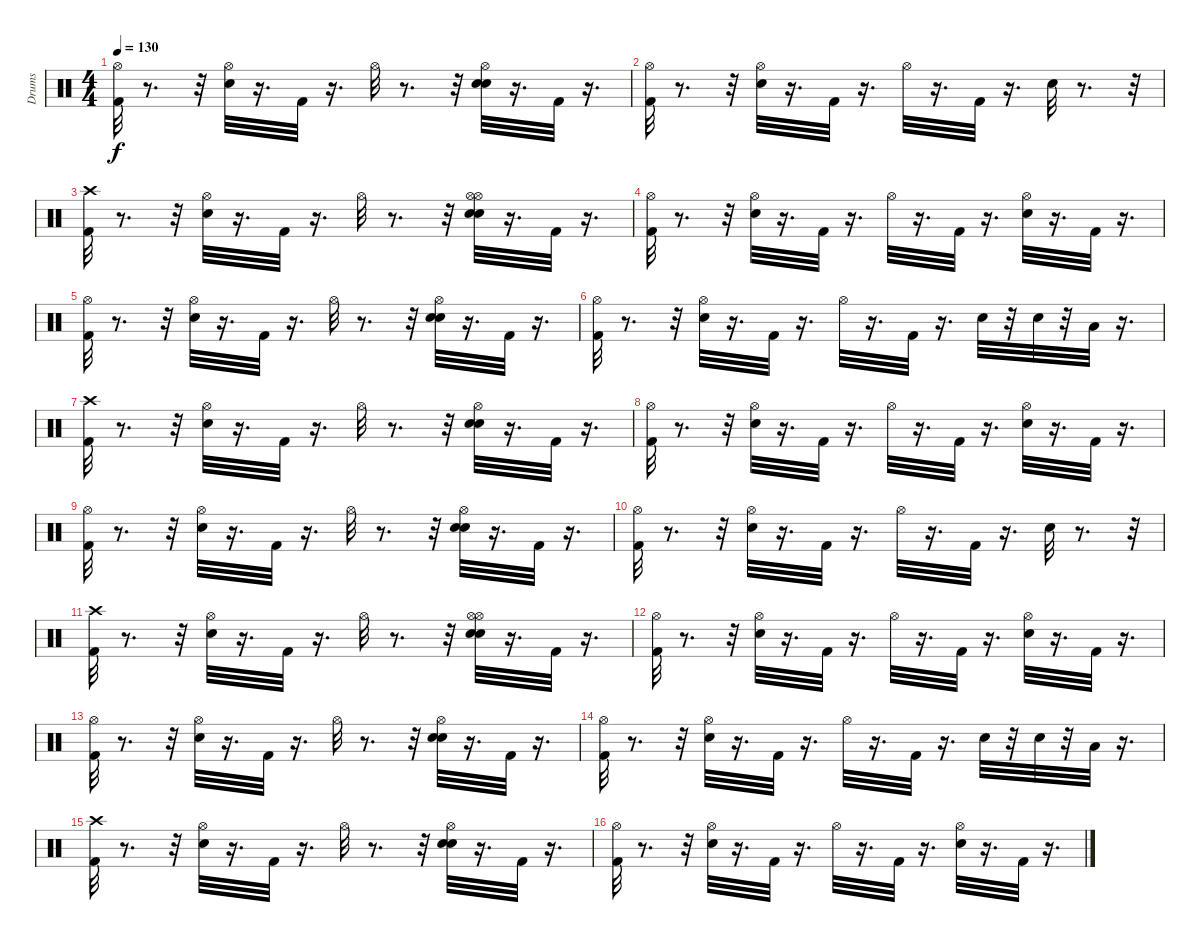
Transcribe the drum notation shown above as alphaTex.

\track ("Drums" "Drums") {instrument percussion}
\staff {score}
\articulation defaults
\ts (4 4)
\tempo 130
\clef neutral
\ks c
("Hi-Hat (open)" "Kick (hit) 2").32{dy f} r.8{d} r.32 ("Snare (hit) 2" "Hi-Hat (open)").32 r.16{d} "Kick (hit) 2".32 r.16{d} "Hi-Hat (open)".32 r.8{d} r.32 ("Snare (hit) 2" "Hi-Hat (open)" "Snare (hit) 2").32 r.16{d} "Kick (hit) 2".32 r.16{d} |
("Hi-Hat (open)" "Kick (hit) 2").32 r.8{d} r.32 ("Snare (hit) 2" "Hi-Hat (open)").32 r.16{d} "Kick (hit) 2".32 r.16{d} "Hi-Hat (open)".32 r.16{d} "Kick (hit) 2".32 r.16{d} "Snare (hit) 2".32 r.8{d} r.32 |
("Kick (hit) 2" "Crash high (hit)").32 r.8{d} r.32 ("Snare (hit) 2" "Hi-Hat (open)").32 r.16{d} "Kick (hit) 2".32 r.16{d} "Hi-Hat (open)".32 r.8{d} r.32 ("Snare (hit) 2" "Hi-Hat (open)" "Snare (hit) 2" "Hi-Hat (open)").32 r.16{d} "Kick (hit) 2".32 r.16{d} |
("Kick (hit) 2" "Hi-Hat (open)").32 r.8{d} r.32 ("Snare (hit) 2" "Hi-Hat (open)").32 r.16{d} "Kick (hit) 2".32 r.16{d} "Hi-Hat (open)".32 r.16{d} "Kick (hit) 2".32 r.16{d} ("Snare (hit) 2" "Hi-Hat (open)").32 r.16{d} "Kick (hit) 2".32 r.16{d} |
("Hi-Hat (open)" "Kick (hit) 2").32 r.8{d} r.32 ("Snare (hit) 2" "Hi-Hat (open)").32 r.16{d} "Kick (hit) 2".32 r.16{d} "Hi-Hat (open)".32 r.8{d} r.32 ("Snare (hit) 2" "Hi-Hat (open)" "Snare (hit) 2").32 r.16{d} "Kick (hit) 2".32 r.16{d} |
("Kick (hit) 2" "Hi-Hat (open)").32 r.8{d} r.32 ("Snare (hit) 2" "Hi-Hat (open)").32 r.16{d} "Kick (hit) 2".32 r.16{d} "Hi-Hat (open)".32 r.16{d} "Kick (hit) 2".32 r.16{d} "Snare (hit) 2".32 r.32 "Snare (hit) 2".32 r.32 "Low Floor Tom (hit)".32 r.16{d} |
("Kick (hit) 2" "Crash high (hit)").32 r.8{d} r.32 ("Snare (hit) 2" "Hi-Hat (open)").32 r.16{d} "Kick (hit) 2".32 r.16{d} "Hi-Hat (open)".32 r.8{d} r.32 ("Snare (hit) 2" "Hi-Hat (open)" "Snare (hit) 2").32 r.16{d} "Kick (hit) 2".32 r.16{d} |
("Kick (hit) 2" "Hi-Hat (open)").32 r.8{d} r.32 ("Snare (hit) 2" "Hi-Hat (open)").32 r.16{d} "Kick (hit) 2".32 r.16{d} "Hi-Hat (open)".32 r.16{d} "Kick (hit) 2".32 r.16{d} ("Hi-Hat (open)" "Snare (hit) 2").32 r.16{d} "Kick (hit) 2".32 r.16{d} |
("Hi-Hat (open)" "Kick (hit) 2").32 r.8{d} r.32 ("Snare (hit) 2" "Hi-Hat (open)").32 r.16{d} "Kick (hit) 2".32 r.16{d} "Hi-Hat (open)".32 r.8{d} r.32 ("Snare (hit) 2" "Snare (hit) 2" "Hi-Hat (open)").32 r.16{d} "Kick (hit) 2".32 r.16{d} |
("Hi-Hat (open)" "Kick (hit) 2").32 r.8{d} r.32 ("Snare (hit) 2" "Hi-Hat (open)").32 r.16{d} "Kick (hit) 2".32 r.16{d} "Hi-Hat (open)".32 r.16{d} "Kick (hit) 2".32 r.16{d} "Snare (hit) 2".32 r.8{d} r.32 |
("Kick (hit) 2" "Crash high (hit)").32 r.8{d} r.32 ("Snare (hit) 2" "Hi-Hat (open)").32 r.16{d} "Kick (hit) 2".32 r.16{d} "Hi-Hat (open)".32 r.8{d} r.32 ("Snare (hit) 2" "Hi-Hat (open)" "Snare (hit) 2" "Hi-Hat (open)").32 r.16{d} "Kick (hit) 2".32 r.16{d} |
("Kick (hit) 2" "Hi-Hat (open)").32 r.8{d} r.32 ("Snare (hit) 2" "Hi-Hat (open)").32 r.16{d} "Kick (hit) 2".32 r.16{d} "Hi-Hat (open)".32 r.16{d} "Kick (hit) 2".32 r.16{d} ("Snare (hit) 2" "Hi-Hat (open)").32 r.16{d} "Kick (hit) 2".32 r.16{d} |
("Hi-Hat (open)" "Kick (hit) 2").32 r.8{d} r.32 ("Snare (hit) 2" "Hi-Hat (open)").32 r.16{d} "Kick (hit) 2".32 r.16{d} "Hi-Hat (open)".32 r.8{d} r.32 ("Snare (hit) 2" "Hi-Hat (open)" "Snare (hit) 2").32 r.16{d} "Kick (hit) 2".32 r.16{d} |
("Kick (hit) 2" "Hi-Hat (open)").32 r.8{d} r.32 ("Snare (hit) 2" "Hi-Hat (open)").32 r.16{d} "Kick (hit) 2".32 r.16{d} "Hi-Hat (open)".32 r.16{d} "Kick (hit) 2".32 r.16{d} "Snare (hit) 2".32 r.32 "Snare (hit) 2".32 r.32 "Low Floor Tom (hit)".32 r.16{d} |
("Kick (hit) 2" "Crash high (hit)").32 r.8{d} r.32 ("Snare (hit) 2" "Hi-Hat (open)").32 r.16{d} "Kick (hit) 2".32 r.16{d} "Hi-Hat (open)".32 r.8{d} r.32 ("Snare (hit) 2" "Hi-Hat (open)" "Snare (hit) 2").32 r.16{d} "Kick (hit) 2".32 r.16{d} |
("Kick (hit) 2" "Hi-Hat (open)").32 r.8{d} r.32 ("Snare (hit) 2" "Hi-Hat (open)").32 r.16{d} "Kick (hit) 2".32 r.16{d} "Hi-Hat (open)".32 r.16{d} "Kick (hit) 2".32 r.16{d} ("Hi-Hat (open)" "Snare (hit) 2").32 r.16{d} "Kick (hit) 2".32 r.16{d}
